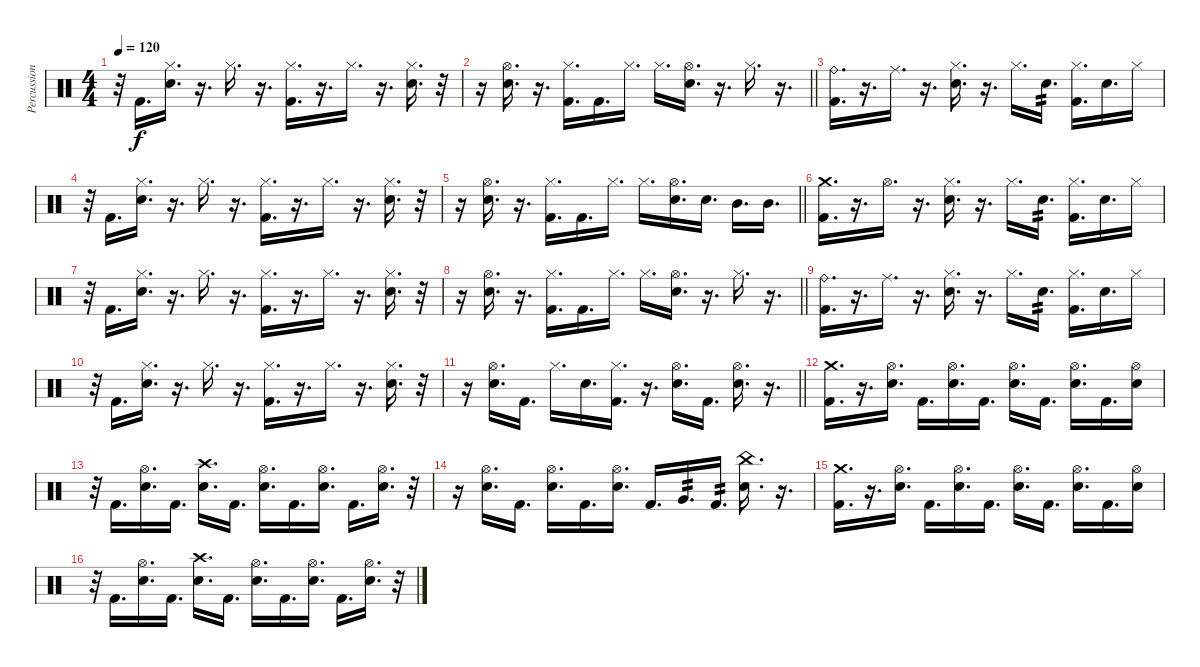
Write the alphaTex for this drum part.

\track ("Percussion" "Percussion") {instrument percussion}
\staff
\articulation defaults
\ts (4 4)
\tempo 120
\clef neutral
\ks c
r.32{dy f} "Kick (hit) 2".16{d} ("Hi-Hat (closed)" "Electric Snare (hit)").16{d} r.16{d} "Hi-Hat (closed)".16{d} r.16{d} ("Hi-Hat (closed)" "Kick (hit) 2").16{d} r.16{d} "Hi-Hat (closed)".16{d} r.16{d} ("Hi-Hat (closed)" "Electric Snare (hit)").16{d} r.32 |
\barLineRight lightlight
r.16 ("Hi-Hat (open)" "Electric Snare (hit)").16{d} r.16{d} ("Hi-Hat (closed)" "Kick (hit) 2").16{d} "Kick (hit) 2".16{d} "Hi-Hat (closed)".16{d} "Hi-Hat (closed)".16{d} ("Hi-Hat (open)" "Electric Snare (hit)").16{d} r.16{d} "Hi-Hat (closed)".16{d} r.16{d} |
("Ride (bell)" "Kick (hit) 2").16{d} r.16{d} "Ride (middle)".16{d} r.16{d} ("Hi-Hat (closed)" "Electric Snare (hit)").16{d} r.16{d} "Hi-Hat (closed)".16{d} "Electric Snare (hit)".16{d tp 2} ("Hi-Hat (closed)" "Kick (hit) 2").16{d} "Electric Snare (hit)".16{d} "Hi-Hat (closed)".16 |
r.32 "Kick (hit) 2".16{d} ("Hi-Hat (closed)" "Electric Snare (hit)").16{d} r.16{d} "Hi-Hat (closed)".16{d} r.16{d} ("Hi-Hat (closed)" "Kick (hit) 2").16{d} r.16{d} "Hi-Hat (closed)".16{d} r.16{d} ("Hi-Hat (closed)" "Electric Snare (hit)").16{d} r.32 |
\barLineRight lightlight
r.16 ("Hi-Hat (open)" "Electric Snare (hit)").16{d} r.16{d} ("Hi-Hat (closed)" "Kick (hit) 2").16{d} "Kick (hit) 2".16{d} "Hi-Hat (closed)".16{d} "Hi-Hat (closed)".16{d} ("Hi-Hat (open)" "Electric Snare (hit)").16{d} "Electric Snare (hit)".16{d} "Mid Tom (hit)".16{d} "Mid Tom (hit)".16{d} |
("Crash medium (hit)" "Kick (hit) 2").16{d} r.16{d} "Hi-Hat (open)".16{d} r.16{d} ("Hi-Hat (closed)" "Electric Snare (hit)").16{d} r.16{d} "Hi-Hat (closed)".16{d} "Electric Snare (hit)".16{d tp 2} ("Hi-Hat (closed)" "Kick (hit) 2").16{d} "Electric Snare (hit)".16{d} "Hi-Hat (closed)".16 |
r.32 "Kick (hit) 2".16{d} ("Hi-Hat (closed)" "Electric Snare (hit)").16{d} r.16{d} "Hi-Hat (closed)".16{d} r.16{d} ("Hi-Hat (closed)" "Kick (hit) 2").16{d} r.16{d} "Hi-Hat (closed)".16{d} r.16{d} ("Hi-Hat (closed)" "Electric Snare (hit)").16{d} r.32 |
\barLineRight lightlight
r.16 ("Hi-Hat (open)" "Electric Snare (hit)").16{d} r.16{d} ("Hi-Hat (closed)" "Kick (hit) 2").16{d} "Kick (hit) 2".16{d} "Hi-Hat (closed)".16{d} "Hi-Hat (closed)".16{d} ("Hi-Hat (open)" "Electric Snare (hit)").16{d} r.16{d} "Hi-Hat (closed)".16{d} r.16{d} |
("Ride (bell)" "Kick (hit) 2").16{d} r.16{d} "Ride (middle)".16{d} r.16{d} ("Hi-Hat (closed)" "Electric Snare (hit)").16{d} r.16{d} "Hi-Hat (closed)".16{d} "Electric Snare (hit)".16{d tp 2} ("Hi-Hat (closed)" "Kick (hit) 2").16{d} "Electric Snare (hit)".16{d} "Hi-Hat (closed)".16 |
r.32 "Kick (hit) 2".16{d} ("Hi-Hat (closed)" "Electric Snare (hit)").16{d} r.16{d} "Hi-Hat (closed)".16{d} r.16{d} ("Hi-Hat (closed)" "Kick (hit) 2").16{d} r.16{d} "Hi-Hat (closed)".16{d} r.16{d} ("Hi-Hat (closed)" "Electric Snare (hit)").16{d} r.32 |
\barLineRight lightlight
r.16 ("Hi-Hat (open)" "Electric Snare (hit)").16{d} "Kick (hit) 2".16{d} "Hi-Hat (closed)".16{d} "Electric Snare (hit)".16{d} ("Hi-Hat (closed)" "Kick (hit) 2").16{d} r.16{d} ("Hi-Hat (open)" "Electric Snare (hit)").16{d} "Kick (hit) 2".16{d} ("Hi-Hat (open)" "Electric Snare (hit)").16{d} r.16{d} |
("Crash medium (hit)" "Kick (hit) 2").16{d} r.16{d} ("Hi-Hat (open)" "Electric Snare (hit)").16{d} "Kick (hit) 2".16{d} ("Hi-Hat (open)" "Electric Snare (hit)").16{d} "Kick (hit) 2".16{d} ("Hi-Hat (open)" "Electric Snare (hit)").16{d} "Kick (hit) 2".16{d} ("Hi-Hat (open)" "Electric Snare (hit)").16{d} "Kick (hit) 2".16{d} ("Hi-Hat (open)" "Electric Snare (hit)").16 |
r.32 "Kick (hit) 2".16{d} ("Electric Snare (hit)" "Hi-Hat (open)").16{d} "Kick (hit) 2".16{d} ("Electric Snare (hit)" "Crash high (hit)").16{d} "Kick (hit) 2".16{d} ("Electric Snare (hit)" "Hi-Hat (open)").16{d} "Kick (hit) 2".16{d} ("Electric Snare (hit)" "Hi-Hat (open)").16{d} "Kick (hit) 2".16{d} ("Electric Snare (hit)" "Hi-Hat (open)").16{d} r.32 |
r.16 ("Electric Snare (hit)" "Hi-Hat (open)").16{d} "Kick (hit) 2".16{d} ("Electric Snare (hit)" "Hi-Hat (open)").16{d} "Kick (hit) 2".16{d} ("Electric Snare (hit)" "Hi-Hat (open)").16{d} "Kick (hit) 2".16{d} "Very Low Tom (hit)".16{d tp 2} "Kick (hit) 2".16{d tp 2} ("China (hit)" "Electric Snare (hit)").16{d} r.16{d} |
("Crash medium (hit)" "Kick (hit) 2").16{d} r.16{d} ("Hi-Hat (open)" "Electric Snare (hit)").16{d} "Kick (hit) 2".16{d} ("Hi-Hat (open)" "Electric Snare (hit)").16{d} "Kick (hit) 2".16{d} ("Hi-Hat (open)" "Electric Snare (hit)").16{d} "Kick (hit) 2".16{d} ("Hi-Hat (open)" "Electric Snare (hit)").16{d} "Kick (hit) 2".16{d} ("Hi-Hat (open)" "Electric Snare (hit)").16 |
r.32 "Kick (hit) 2".16{d} ("Electric Snare (hit)" "Hi-Hat (open)").16{d} "Kick (hit) 2".16{d} ("Electric Snare (hit)" "Crash high (hit)").16{d} "Kick (hit) 2".16{d} ("Electric Snare (hit)" "Hi-Hat (open)").16{d} "Kick (hit) 2".16{d} ("Electric Snare (hit)" "Hi-Hat (open)").16{d} "Kick (hit) 2".16{d} ("Electric Snare (hit)" "Hi-Hat (open)").16{d} r.32
